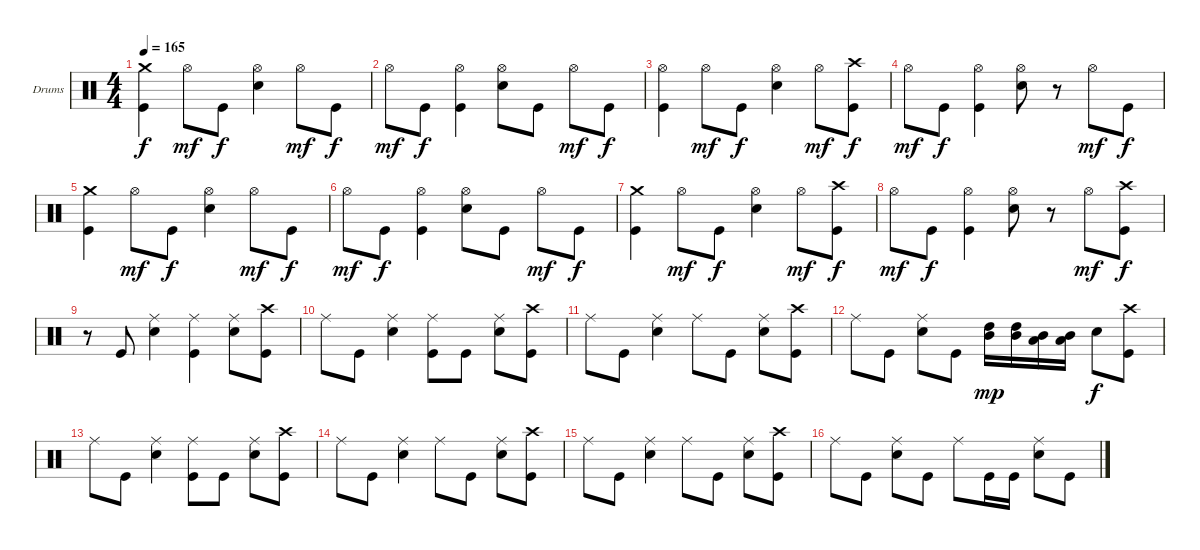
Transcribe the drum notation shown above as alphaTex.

\bracketExtendMode groupsimilarinstruments
\firstSystemTrackNameOrientation horizontal
\otherSystemsTrackNameOrientation horizontal
\track ("Drumkit Midi" "Drums") {instrument percussion}
\staff {score}
\articulation defaults
\ts (4 4)
\tempo 165
\clef neutral
\ks c
("Kick (hit)" "Crash medium (hit)").4{dy f} "Hi-Hat (open)".8{dy mf} "Kick (hit)".8{dy f} ("Snare (hit) 2" "Hi-Hat (open)").4 "Hi-Hat (open)".8{dy mf} "Kick (hit)".8{dy f} |
"Hi-Hat (open)".8{dy mf} "Kick (hit)".8{dy f} ("Kick (hit)" "Hi-Hat (open)").4 ("Snare (hit) 2" "Hi-Hat (open)").8 "Kick (hit)".8 "Hi-Hat (open)".8{dy mf} "Kick (hit)".8{dy f} |
("Kick (hit)" "Hi-Hat (open)").4 "Hi-Hat (open)".8{dy mf} "Kick (hit)".8{dy f} ("Snare (hit) 2" "Hi-Hat (open)").4 "Hi-Hat (open)".8{dy mf} ("Kick (hit)" "Crash high (hit)").8{dy f} |
"Hi-Hat (open)".8{dy mf} "Kick (hit)".8{dy f} ("Kick (hit)" "Hi-Hat (open)").4 ("Snare (hit) 2" "Hi-Hat (open)").8 r.8 "Hi-Hat (open)".8{dy mf} "Kick (hit)".8{dy f} |
("Kick (hit)" "Crash medium (hit)").4 "Hi-Hat (open)".8{dy mf} "Kick (hit)".8{dy f} ("Snare (hit) 2" "Hi-Hat (open)").4 "Hi-Hat (open)".8{dy mf} "Kick (hit)".8{dy f} |
"Hi-Hat (open)".8{dy mf} "Kick (hit)".8{dy f} ("Kick (hit)" "Hi-Hat (open)").4 ("Snare (hit) 2" "Hi-Hat (open)").8 "Kick (hit)".8 "Hi-Hat (open)".8{dy mf} "Kick (hit)".8{dy f} |
("Kick (hit)" "Crash medium (hit)").4 "Hi-Hat (open)".8{dy mf} "Kick (hit)".8{dy f} ("Snare (hit) 2" "Hi-Hat (open)").4 "Hi-Hat (open)".8{dy mf} ("Kick (hit)" "Crash high (hit)").8{dy f} |
"Hi-Hat (open)".8{dy mf} "Kick (hit)".8{dy f} ("Kick (hit)" "Hi-Hat (open)").4 ("Snare (hit) 2" "Hi-Hat (open)").8 r.8 "Hi-Hat (open)".8{dy mf} ("Kick (hit)" "Crash high (hit)").8{dy f} |
r.8 "Kick (hit)".8 ("Snare (hit) 2" "Ride (middle)").4 ("Kick (hit)" "Ride (middle)").4 ("Snare (hit) 2" "Ride (middle)").8 ("Kick (hit)" "Crash high (hit)").8 |
"Ride (middle)".8 "Kick (hit)".8 ("Snare (hit) 2" "Ride (middle)").4 ("Kick (hit)" "Ride (middle)").8 "Kick (hit)".8 ("Snare (hit) 2" "Ride (middle)").8 ("Kick (hit)" "Crash high (hit)").8 |
"Ride (middle)".8 "Kick (hit)".8 ("Snare (hit) 2" "Ride (middle)").4 "Ride (middle)".8 "Kick (hit)".8 ("Snare (hit) 2" "Ride (middle)").8 ("Kick (hit)" "Crash high (hit)").8 |
"Ride (middle)".8 "Kick (hit)".8 ("Snare (hit) 2" "Ride (middle)").8 "Kick (hit)".8 ("Mid Tom (hit)" "High Tom (hit)").16{dy mp} ("Mid Tom (hit)" "High Tom (hit)").16 ("Low Tom (hit)" "Mid Tom (hit)").16 ("Low Tom (hit)" "Mid Tom (hit)").16 "Snare (hit) 2".8{dy f} ("Kick (hit)" "Crash high (hit)").8 |
"Ride (middle)".8 "Kick (hit)".8 ("Snare (hit) 2" "Ride (middle)").4 ("Kick (hit)" "Ride (middle)").8 "Kick (hit)".8 ("Snare (hit) 2" "Ride (middle)").8 ("Kick (hit)" "Crash high (hit)").8 |
"Ride (middle)".8 "Kick (hit)".8 ("Snare (hit) 2" "Ride (middle)").4 "Ride (middle)".8 "Kick (hit)".8 ("Snare (hit) 2" "Ride (middle)").8 ("Kick (hit)" "Crash high (hit)").8 |
"Ride (middle)".8 "Kick (hit)".8 ("Snare (hit) 2" "Ride (middle)").4 "Ride (middle)".8 "Kick (hit)".8 ("Snare (hit) 2" "Ride (middle)").8 ("Kick (hit)" "Crash high (hit)").8 |
"Ride (middle)".8 "Kick (hit)".8 ("Snare (hit) 2" "Ride (middle)").8 "Kick (hit)".8 "Ride (middle)".8 "Kick (hit)".16 "Kick (hit)".16 ("Snare (hit) 2" "Ride (middle)").8 "Kick (hit)".8
